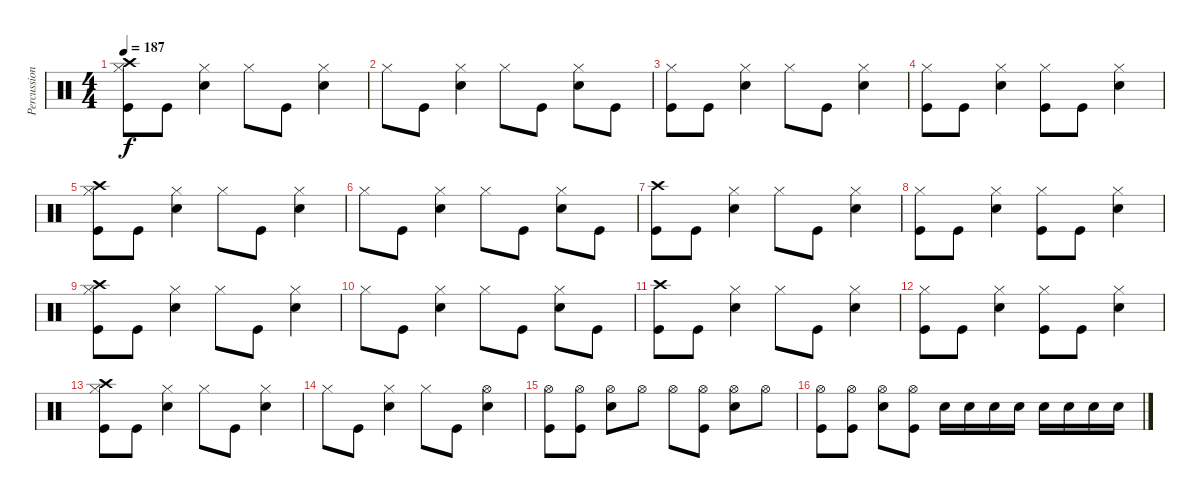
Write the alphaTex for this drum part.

\track ("Percussions" "Percussion") {instrument percussion}
\staff {score}
\articulation defaults
\ts (4 4)
\tempo 187
\clef neutral
\ks c
("Kick (hit)" "Hi-Hat (closed)" "Crash high (hit)").8{dy f} "Kick (hit)".8 ("Electric Snare (hit)" "Hi-Hat (closed)").4 "Hi-Hat (closed)".8 "Kick (hit)".8 ("Electric Snare (hit)" "Hi-Hat (closed)").4 |
"Hi-Hat (closed)".8 "Kick (hit)".8 ("Electric Snare (hit)" "Hi-Hat (closed)").4 "Hi-Hat (closed)".8 "Kick (hit)".8 ("Hi-Hat (closed)" "Electric Snare (hit)").8 "Kick (hit)".8 |
("Kick (hit)" "Hi-Hat (closed)").8 "Kick (hit)".8 ("Electric Snare (hit)" "Hi-Hat (closed)").4 "Hi-Hat (closed)".8 "Kick (hit)".8 ("Electric Snare (hit)" "Hi-Hat (closed)").4 |
("Hi-Hat (closed)" "Kick (hit)").8 "Kick (hit)".8 ("Electric Snare (hit)" "Hi-Hat (closed)").4 ("Hi-Hat (closed)" "Kick (hit)").8 "Kick (hit)".8 ("Electric Snare (hit)" "Hi-Hat (closed)").4 |
("Kick (hit)" "Hi-Hat (closed)" "Crash high (hit)").8 "Kick (hit)".8 ("Electric Snare (hit)" "Hi-Hat (closed)").4 "Hi-Hat (closed)".8 "Kick (hit)".8 ("Electric Snare (hit)" "Hi-Hat (closed)").4 |
"Hi-Hat (closed)".8 "Kick (hit)".8 ("Electric Snare (hit)" "Hi-Hat (closed)").4 "Hi-Hat (closed)".8 "Kick (hit)".8 ("Hi-Hat (closed)" "Electric Snare (hit)").8 "Kick (hit)".8 |
("Kick (hit)" "Crash high (hit)").8 "Kick (hit)".8 ("Electric Snare (hit)" "Hi-Hat (closed)").4 "Hi-Hat (closed)".8 "Kick (hit)".8 ("Electric Snare (hit)" "Hi-Hat (closed)").4 |
("Hi-Hat (closed)" "Kick (hit)").8 "Kick (hit)".8 ("Electric Snare (hit)" "Hi-Hat (closed)").4 ("Hi-Hat (closed)" "Kick (hit)").8 "Kick (hit)".8 ("Electric Snare (hit)" "Hi-Hat (closed)").4 |
("Kick (hit)" "Hi-Hat (closed)" "Crash high (hit)").8 "Kick (hit)".8 ("Electric Snare (hit)" "Hi-Hat (closed)").4 "Hi-Hat (closed)".8 "Kick (hit)".8 ("Electric Snare (hit)" "Hi-Hat (closed)").4 |
"Hi-Hat (closed)".8 "Kick (hit)".8 ("Electric Snare (hit)" "Hi-Hat (closed)").4 "Hi-Hat (closed)".8 "Kick (hit)".8 ("Hi-Hat (closed)" "Electric Snare (hit)").8 "Kick (hit)".8 |
("Kick (hit)" "Crash high (hit)").8 "Kick (hit)".8 ("Electric Snare (hit)" "Hi-Hat (closed)").4 "Hi-Hat (closed)".8 "Kick (hit)".8 ("Electric Snare (hit)" "Hi-Hat (closed)").4 |
("Hi-Hat (closed)" "Kick (hit)").8 "Kick (hit)".8 ("Electric Snare (hit)" "Hi-Hat (closed)").4 ("Hi-Hat (closed)" "Kick (hit)").8 "Kick (hit)".8 ("Electric Snare (hit)" "Hi-Hat (closed)").4 |
("Kick (hit)" "Hi-Hat (closed)" "Crash high (hit)").8 "Kick (hit)".8 ("Electric Snare (hit)" "Hi-Hat (closed)").4 "Hi-Hat (closed)".8 "Kick (hit)".8 ("Electric Snare (hit)" "Hi-Hat (closed)").4 |
"Hi-Hat (closed)".8 "Kick (hit)".8 ("Electric Snare (hit)" "Hi-Hat (closed)").4 "Hi-Hat (closed)".8 "Kick (hit)".8 ("Hi-Hat (open)" "Electric Snare (hit)").4 |
("Kick (hit)" "Hi-Hat (open)").8 ("Kick (hit)" "Hi-Hat (open)").8 ("Electric Snare (hit)" "Hi-Hat (open)").8 "Hi-Hat (open)".8 "Hi-Hat (open)".8 ("Kick (hit)" "Hi-Hat (open)").8 ("Electric Snare (hit)" "Hi-Hat (open)").8 "Hi-Hat (open)".8 |
("Kick (hit)" "Hi-Hat (open)").8 ("Kick (hit)" "Hi-Hat (open)").8 ("Electric Snare (hit)" "Hi-Hat (open)").8 ("Hi-Hat (open)" "Kick (hit)").8 "Electric Snare (hit)".16 "Electric Snare (hit)".16 "Electric Snare (hit)".16 "Electric Snare (hit)".16 "Electric Snare (hit)".16 "Electric Snare (hit)".16 "Electric Snare (hit)".16 "Electric Snare (hit)".16
